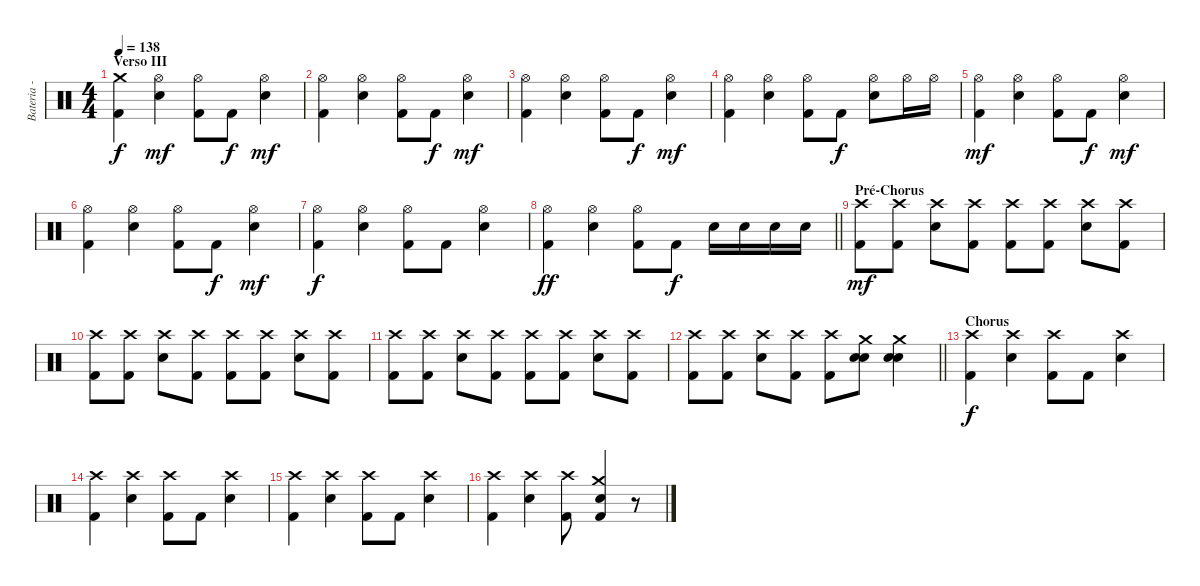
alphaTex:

\track ("Bateria - Larzon" "Bateria - ") {instrument percussion}
\staff {score}
\articulation defaults
\ts (4 4)
\section ("" "Verso III")
\tempo 138
\clef neutral
\ks c
("Kick (hit) 2" "Crash medium (hit)").4{dy f} ("Electric Snare (hit)" "Hi-Hat (open)").4{dy mf} ("Kick (hit) 2" "Hi-Hat (open)").8 "Kick (hit) 2".8{dy f} ("Electric Snare (hit)" "Hi-Hat (open)").4{dy mf} |
("Kick (hit) 2" "Hi-Hat (open)").4 ("Electric Snare (hit)" "Hi-Hat (open)").4 ("Kick (hit) 2" "Hi-Hat (open)").8 "Kick (hit) 2".8{dy f} ("Electric Snare (hit)" "Hi-Hat (open)").4{dy mf} |
("Kick (hit) 2" "Hi-Hat (open)").4 ("Electric Snare (hit)" "Hi-Hat (open)").4 ("Kick (hit) 2" "Hi-Hat (open)").8 "Kick (hit) 2".8{dy f} ("Electric Snare (hit)" "Hi-Hat (open)").4{dy mf} |
("Kick (hit) 2" "Hi-Hat (open)").4 ("Electric Snare (hit)" "Hi-Hat (open)").4 ("Kick (hit) 2" "Hi-Hat (open)").8 "Kick (hit) 2".8{dy f} ("Electric Snare (hit)" "Hi-Hat (open)").8 "Hi-Hat (open)".16 "Hi-Hat (open)".16 |
("Kick (hit) 2" "Hi-Hat (open)").4{dy mf} ("Electric Snare (hit)" "Hi-Hat (open)").4 ("Kick (hit) 2" "Hi-Hat (open)").8 "Kick (hit) 2".8{dy f} ("Electric Snare (hit)" "Hi-Hat (open)").4{dy mf} |
("Kick (hit) 2" "Hi-Hat (open)").4 ("Electric Snare (hit)" "Hi-Hat (open)").4 ("Kick (hit) 2" "Hi-Hat (open)").8 "Kick (hit) 2".8{dy f} ("Electric Snare (hit)" "Hi-Hat (open)").4{dy mf} |
("Kick (hit) 2" "Hi-Hat (open)").4{dy f} ("Electric Snare (hit)" "Hi-Hat (open)").4 ("Kick (hit) 2" "Hi-Hat (open)").8 "Kick (hit) 2".8 ("Electric Snare (hit)" "Hi-Hat (open)").4 |
\barLineRight lightlight
("Kick (hit) 2" "Hi-Hat (open)").4{dy ff} ("Electric Snare (hit)" "Hi-Hat (open)").4 ("Kick (hit) 2" "Hi-Hat (open)").8 "Kick (hit) 2".8{dy f} "Electric Snare (hit)".16 "Electric Snare (hit)".16 "Electric Snare (hit)".16 "Electric Snare (hit)".16 |
\section ("" "Pré-Chorus")
("Kick (hit) 2" "Crash high (hit)").8{dy mf} ("Kick (hit) 2" "Crash high (hit)").8 ("Electric Snare (hit)" "Crash high (hit)").8 ("Kick (hit) 2" "Crash high (hit)").8 ("Kick (hit) 2" "Crash high (hit)").8 ("Kick (hit) 2" "Crash high (hit)").8 ("Electric Snare (hit)" "Crash high (hit)").8 ("Kick (hit) 2" "Crash high (hit)").8 |
("Kick (hit) 2" "Crash high (hit)").8 ("Kick (hit) 2" "Crash high (hit)").8 ("Electric Snare (hit)" "Crash high (hit)").8 ("Kick (hit) 2" "Crash high (hit)").8 ("Kick (hit) 2" "Crash high (hit)").8 ("Kick (hit) 2" "Crash high (hit)").8 ("Electric Snare (hit)" "Crash high (hit)").8 ("Kick (hit) 2" "Crash high (hit)").8 |
("Kick (hit) 2" "Crash high (hit)").8 ("Kick (hit) 2" "Crash high (hit)").8 ("Electric Snare (hit)" "Crash high (hit)").8 ("Kick (hit) 2" "Crash high (hit)").8 ("Kick (hit) 2" "Crash high (hit)").8 ("Kick (hit) 2" "Crash high (hit)").8 ("Electric Snare (hit)" "Crash high (hit)").8 ("Kick (hit) 2" "Crash high (hit)").8 |
\barLineRight lightlight
("Kick (hit) 2" "Crash high (hit)").8 ("Kick (hit) 2" "Crash high (hit)").8 ("Electric Snare (hit)" "Crash high (hit)").8 ("Kick (hit) 2" "Crash high (hit)").8 ("Kick (hit) 2" "Crash high (hit)").8 ("Electric Snare (hit)" "Electric Snare (hit)" "Crash medium (hit)").8 ("Electric Snare (hit)" "Electric Snare (hit)" "Crash medium (hit)").4 |
\section ("" "Chorus")
("Kick (hit) 2" "Crash high (hit)").4{dy f} ("Electric Snare (hit)" "Crash high (hit)").4 ("Kick (hit) 2" "Crash high (hit)").8 "Kick (hit) 2".8 ("Electric Snare (hit)" "Crash high (hit)").4 |
("Kick (hit) 2" "Crash high (hit)").4 ("Electric Snare (hit)" "Crash high (hit)").4 ("Kick (hit) 2" "Crash high (hit)").8 "Kick (hit) 2".8 ("Electric Snare (hit)" "Crash high (hit)").4 |
("Kick (hit) 2" "Crash high (hit)").4 ("Electric Snare (hit)" "Crash high (hit)").4 ("Kick (hit) 2" "Crash high (hit)").8 "Kick (hit) 2".8 ("Electric Snare (hit)" "Crash high (hit)").4 |
("Kick (hit) 2" "Crash high (hit)").4 ("Electric Snare (hit)" "Crash high (hit)").4 ("Kick (hit) 2" "Crash high (hit)").8 ("Electric Snare (hit)" "Crash medium (hit)" "Kick (hit) 2").4 r.8
